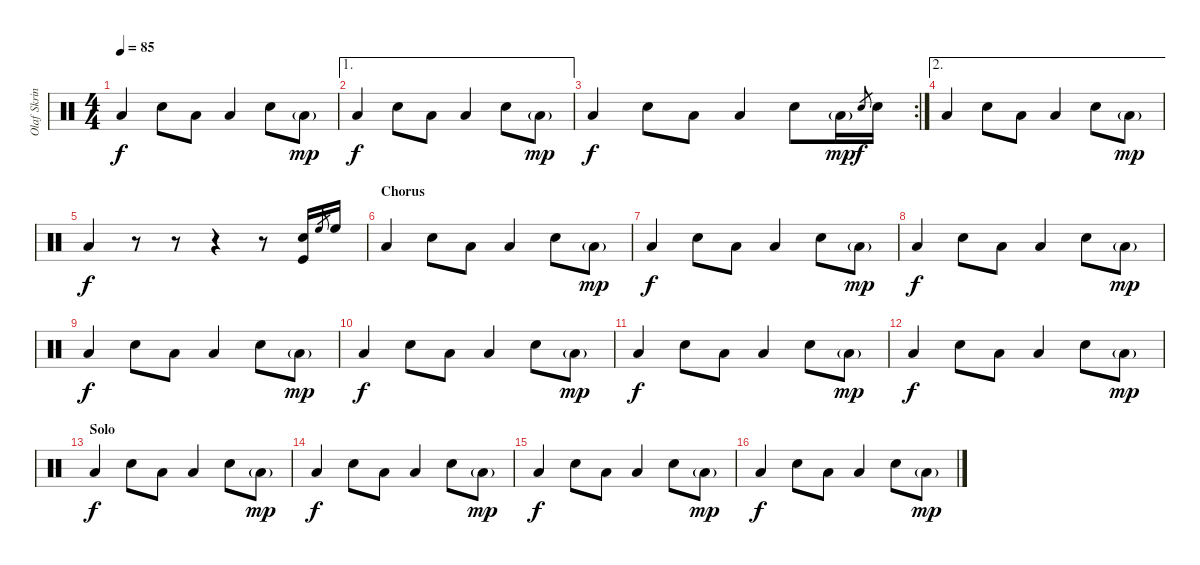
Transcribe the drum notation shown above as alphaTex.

\track ("Olaf Skrinde (Drums)" "Olaf Skrin") {instrument percussion}
\staff {score}
\articulation defaults
\ts (4 4)
\tempo 85
\clef neutral
\ks c "Low Floor Tom (hit)".4{dy f} "Snare (hit) 2".8 "Low Floor Tom (hit)".8 "Low Floor Tom (hit)".4 "Snare (hit) 2".8 "Low Floor Tom (hit)"{g}.8{dy mp}
|
\ae 1 "Low Floor Tom (hit)".4{dy f} "Snare (hit) 2".8 "Low Floor Tom (hit)".8 "Low Floor Tom (hit)".4 "Snare (hit) 2".8 "Low Floor Tom (hit)"{g}.8{dy mp}
|
\rc 2 "Low Floor Tom (hit)".4{dy f} "Snare (hit) 2".8 "Low Floor Tom (hit)".8 "Low Floor Tom (hit)".4 "Snare (hit) 2".8 "Low Floor Tom (hit)"{g}.16{dy mp} "Snare (hit) 2".8{gr dy f} "Snare (hit) 2".16
|
\ae 2 "Low Floor Tom (hit)".4 "Snare (hit) 2".8 "Low Floor Tom (hit)".8 "Low Floor Tom (hit)".4 "Snare (hit) 2".8 "Low Floor Tom (hit)"{g}.8{dy mp}
|
"Low Floor Tom (hit)".4{dy f} r.8 r.8 r.4 r.8 ("Electric Snare (hit)" "Kick (hit)").16 "High Floor Tom (hit)".8{gr} "High Floor Tom (hit)".16 |
\section ("" "Chorus")
"Low Floor Tom (hit)".4 "Snare (hit) 2".8 "Low Floor Tom (hit)".8 "Low Floor Tom (hit)".4 "Snare (hit) 2".8 "Low Floor Tom (hit)"{g}.8{dy mp} |
"Low Floor Tom (hit)".4{dy f} "Snare (hit) 2".8 "Low Floor Tom (hit)".8 "Low Floor Tom (hit)".4 "Snare (hit) 2".8 "Low Floor Tom (hit)"{g}.8{dy mp} |
"Low Floor Tom (hit)".4{dy f} "Snare (hit) 2".8 "Low Floor Tom (hit)".8 "Low Floor Tom (hit)".4 "Snare (hit) 2".8 "Low Floor Tom (hit)"{g}.8{dy mp} |
"Low Floor Tom (hit)".4{dy f} "Snare (hit) 2".8 "Low Floor Tom (hit)".8 "Low Floor Tom (hit)".4 "Snare (hit) 2".8 "Low Floor Tom (hit)"{g}.8{dy mp} |
"Low Floor Tom (hit)".4{dy f} "Snare (hit) 2".8 "Low Floor Tom (hit)".8 "Low Floor Tom (hit)".4 "Snare (hit) 2".8 "Low Floor Tom (hit)"{g}.8{dy mp} |
"Low Floor Tom (hit)".4{dy f} "Snare (hit) 2".8 "Low Floor Tom (hit)".8 "Low Floor Tom (hit)".4 "Snare (hit) 2".8 "Low Floor Tom (hit)"{g}.8{dy mp} |
"Low Floor Tom (hit)".4{dy f} "Snare (hit) 2".8 "Low Floor Tom (hit)".8 "Low Floor Tom (hit)".4 "Snare (hit) 2".8 "Low Floor Tom (hit)"{g}.8{dy mp} |
\section ("" "Solo")
"Low Floor Tom (hit)".4{dy f} "Snare (hit) 2".8 "Low Floor Tom (hit)".8 "Low Floor Tom (hit)".4 "Snare (hit) 2".8 "Low Floor Tom (hit)"{g}.8{dy mp} |
"Low Floor Tom (hit)".4{dy f} "Snare (hit) 2".8 "Low Floor Tom (hit)".8 "Low Floor Tom (hit)".4 "Snare (hit) 2".8 "Low Floor Tom (hit)"{g}.8{dy mp} |
"Low Floor Tom (hit)".4{dy f} "Snare (hit) 2".8 "Low Floor Tom (hit)".8 "Low Floor Tom (hit)".4 "Snare (hit) 2".8 "Low Floor Tom (hit)"{g}.8{dy mp} |
"Low Floor Tom (hit)".4{dy f} "Snare (hit) 2".8 "Low Floor Tom (hit)".8 "Low Floor Tom (hit)".4 "Snare (hit) 2".8 "Low Floor Tom (hit)"{g}.8{dy mp}
